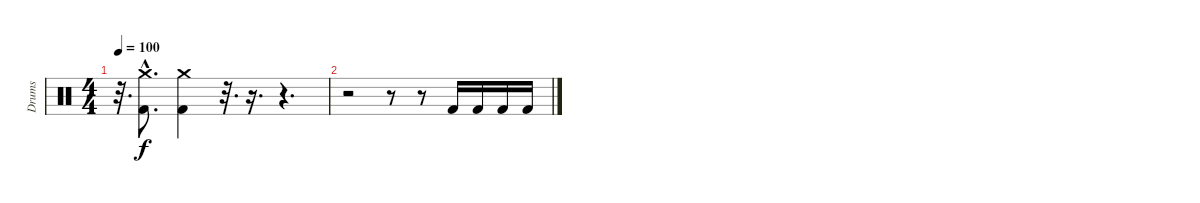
\track ("Drums" "Drums") {instrument percussion}
\staff {score}
\articulation defaults
\ts (4 4)
\tempo 100
\clef neutral
\ks c
r.32{d dy f} ("Kick (hit) 2"{hac} "Crash medium (hit)"{hac}).8{d} ("Kick (hit) 2" "Crash medium (hit)").4 r.32{d} r.16{d} r.4{d} |
r.2 r.8 r.8 "Kick (hit) 2".16 "Kick (hit) 2".16 "Kick (hit) 2".16 "Kick (hit) 2".16
